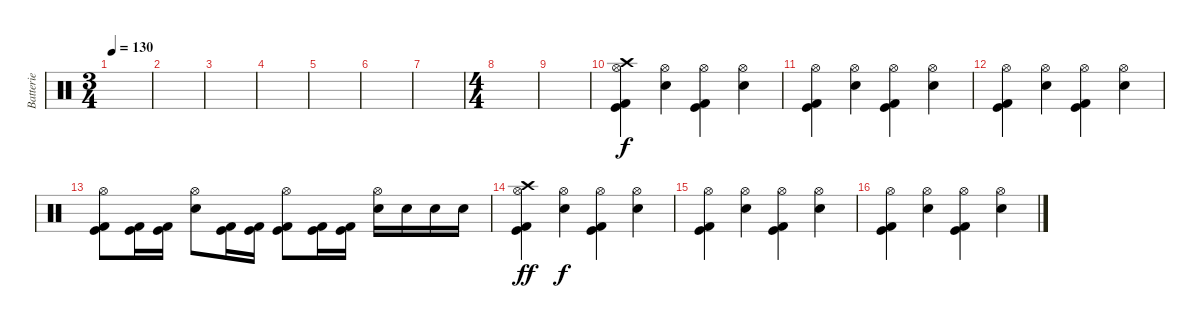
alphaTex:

\track ("Batterie" "Batterie") {instrument percussion}
\staff {score}
\articulation defaults
\ts (3 4)
\tempo 130
\clef neutral
\ks c
|
|
|
|
|
|
|
\ts (4 4)
|
|
("Hi-Hat (open)" "Crash high (hit)" "Kick (hit) 2" "Kick (hit)").4 ("Hi-Hat (open)" "Electric Snare (hit)").4{dy f} ("Hi-Hat (open)" "Kick (hit)" "Kick (hit) 2").4 ("Hi-Hat (open)" "Electric Snare (hit)").4 |
("Hi-Hat (open)" "Kick (hit) 2" "Kick (hit)").4 ("Hi-Hat (open)" "Electric Snare (hit)").4 ("Hi-Hat (open)" "Kick (hit)" "Kick (hit) 2").4 ("Hi-Hat (open)" "Electric Snare (hit)").4 |
("Hi-Hat (open)" "Kick (hit) 2" "Kick (hit)").4 ("Hi-Hat (open)" "Electric Snare (hit)").4 ("Hi-Hat (open)" "Kick (hit)" "Kick (hit) 2").4 ("Hi-Hat (open)" "Electric Snare (hit)").4 |
("Hi-Hat (open)" "Kick (hit) 2" "Kick (hit)").8 ("Kick (hit)" "Kick (hit) 2").16 ("Kick (hit)" "Kick (hit) 2").16 ("Hi-Hat (open)" "Electric Snare (hit)").8 ("Kick (hit)" "Kick (hit) 2").16 ("Kick (hit) 2" "Kick (hit)").16 ("Hi-Hat (open)" "Kick (hit)" "Kick (hit) 2").8 ("Kick (hit)" "Kick (hit) 2").16 ("Kick (hit) 2" "Kick (hit)").16 ("Hi-Hat (open)" "Electric Snare (hit)").16 "Electric Snare (hit)".16 "Electric Snare (hit)".16 "Electric Snare (hit)".16 |
("Hi-Hat (open)" "Crash high (hit)" "Kick (hit) 2" "Kick (hit)").4{dy ff} ("Hi-Hat (open)" "Electric Snare (hit)").4{dy f} ("Hi-Hat (open)" "Kick (hit)" "Kick (hit) 2").4 ("Hi-Hat (open)" "Electric Snare (hit)").4 |
("Hi-Hat (open)" "Kick (hit) 2" "Kick (hit)").4 ("Hi-Hat (open)" "Electric Snare (hit)").4 ("Hi-Hat (open)" "Kick (hit)" "Kick (hit) 2").4 ("Hi-Hat (open)" "Electric Snare (hit)").4 |
("Hi-Hat (open)" "Kick (hit) 2" "Kick (hit)").4 ("Hi-Hat (open)" "Electric Snare (hit)").4 ("Hi-Hat (open)" "Kick (hit)" "Kick (hit) 2").4 ("Hi-Hat (open)" "Electric Snare (hit)").4
